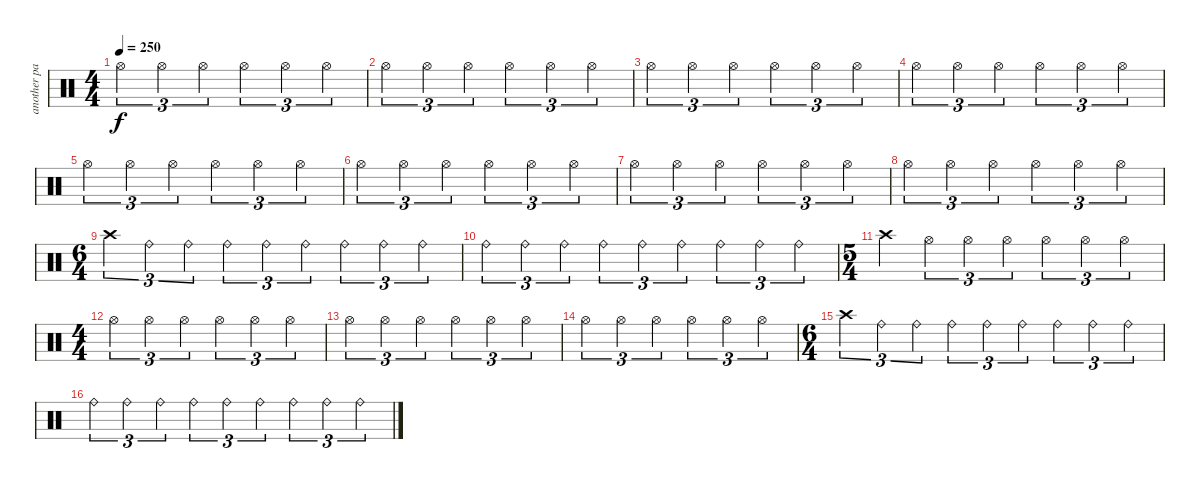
\track ("another part of metti" "another pa") {instrument percussion}
\staff {score}
\articulation defaults
\ts (4 4)
\tempo 250
\clef neutral
\ks c "Hi-Hat (open)".4{tu (3 2) dy f} "Hi-Hat (open)".4{tu (3 2)} "Hi-Hat (open)".4{tu (3 2)} "Hi-Hat (open)".4{tu (3 2)} "Hi-Hat (open)".4{tu (3 2)} "Hi-Hat (open)".4{tu (3 2)}
|
"Hi-Hat (open)".4{tu (3 2)} "Hi-Hat (open)".4{tu (3 2)} "Hi-Hat (open)".4{tu (3 2)} "Hi-Hat (open)".4{tu (3 2)} "Hi-Hat (open)".4{tu (3 2)} "Hi-Hat (open)".4{tu (3 2)} |
"Hi-Hat (open)".4{tu (3 2)} "Hi-Hat (open)".4{tu (3 2)} "Hi-Hat (open)".4{tu (3 2)} "Hi-Hat (open)".4{tu (3 2)} "Hi-Hat (open)".4{tu (3 2)} "Hi-Hat (open)".4{tu (3 2)} |
"Hi-Hat (open)".4{tu (3 2)} "Hi-Hat (open)".4{tu (3 2)} "Hi-Hat (open)".4{tu (3 2)} "Hi-Hat (open)".4{tu (3 2)} "Hi-Hat (open)".4{tu (3 2)} "Hi-Hat (open)".4{tu (3 2)} |
"Hi-Hat (open)".4{tu (3 2)} "Hi-Hat (open)".4{tu (3 2)} "Hi-Hat (open)".4{tu (3 2)} "Hi-Hat (open)".4{tu (3 2)} "Hi-Hat (open)".4{tu (3 2)} "Hi-Hat (open)".4{tu (3 2)} |
"Hi-Hat (open)".4{tu (3 2)} "Hi-Hat (open)".4{tu (3 2)} "Hi-Hat (open)".4{tu (3 2)} "Hi-Hat (open)".4{tu (3 2)} "Hi-Hat (open)".4{tu (3 2)} "Hi-Hat (open)".4{tu (3 2)} |
"Hi-Hat (open)".4{tu (3 2)} "Hi-Hat (open)".4{tu (3 2)} "Hi-Hat (open)".4{tu (3 2)} "Hi-Hat (open)".4{tu (3 2)} "Hi-Hat (open)".4{tu (3 2)} "Hi-Hat (open)".4{tu (3 2)} |
"Hi-Hat (open)".4{tu (3 2)} "Hi-Hat (open)".4{tu (3 2)} "Hi-Hat (open)".4{tu (3 2)} "Hi-Hat (open)".4{tu (3 2)} "Hi-Hat (open)".4{tu (3 2)} "Hi-Hat (open)".4{tu (3 2)} |
\ts (6 4)
"Crash high (hit)".4{tu (3 2)} "Ride (bell)".4{tu (3 2)} "Ride (bell)".4{tu (3 2)} "Ride (bell)".4{tu (3 2)} "Ride (bell)".4{tu (3 2)} "Ride (bell)".4{tu (3 2)} "Ride (bell)".4{tu (3 2)} "Ride (bell)".4{tu (3 2)} "Ride (bell)".4{tu (3 2)} |
"Ride (bell)".4{tu (3 2)} "Ride (bell)".4{tu (3 2)} "Ride (bell)".4{tu (3 2)} "Ride (bell)".4{tu (3 2)} "Ride (bell)".4{tu (3 2)} "Ride (bell)".4{tu (3 2)} "Ride (bell)".4{tu (3 2)} "Ride (bell)".4{tu (3 2)} "Ride (bell)".4{tu (3 2)} |
\ts (5 4)
"Crash high (hit)".4 "Hi-Hat (open)".4{tu (3 2)} "Hi-Hat (open)".4{tu (3 2)} "Hi-Hat (open)".4{tu (3 2)} "Hi-Hat (open)".4{tu (3 2)} "Hi-Hat (open)".4{tu (3 2)} "Hi-Hat (open)".4{tu (3 2)} |
\ts (4 4)
"Hi-Hat (open)".4{tu (3 2)} "Hi-Hat (open)".4{tu (3 2)} "Hi-Hat (open)".4{tu (3 2)} "Hi-Hat (open)".4{tu (3 2)} "Hi-Hat (open)".4{tu (3 2)} "Hi-Hat (open)".4{tu (3 2)} |
"Hi-Hat (open)".4{tu (3 2)} "Hi-Hat (open)".4{tu (3 2)} "Hi-Hat (open)".4{tu (3 2)} "Hi-Hat (open)".4{tu (3 2)} "Hi-Hat (open)".4{tu (3 2)} "Hi-Hat (open)".4{tu (3 2)} |
"Hi-Hat (open)".4{tu (3 2)} "Hi-Hat (open)".4{tu (3 2)} "Hi-Hat (open)".4{tu (3 2)} "Hi-Hat (open)".4{tu (3 2)} "Hi-Hat (open)".4{tu (3 2)} "Hi-Hat (open)".4{tu (3 2)} |
\ts (6 4)
"Crash high (hit)".4{tu (3 2)} "Ride (bell)".4{tu (3 2)} "Ride (bell)".4{tu (3 2)} "Ride (bell)".4{tu (3 2)} "Ride (bell)".4{tu (3 2)} "Ride (bell)".4{tu (3 2)} "Ride (bell)".4{tu (3 2)} "Ride (bell)".4{tu (3 2)} "Ride (bell)".4{tu (3 2)} |
"Ride (bell)".4{tu (3 2)} "Ride (bell)".4{tu (3 2)} "Ride (bell)".4{tu (3 2)} "Ride (bell)".4{tu (3 2)} "Ride (bell)".4{tu (3 2)} "Ride (bell)".4{tu (3 2)} "Ride (bell)".4{tu (3 2)} "Ride (bell)".4{tu (3 2)} "Ride (bell)".4{tu (3 2)}
